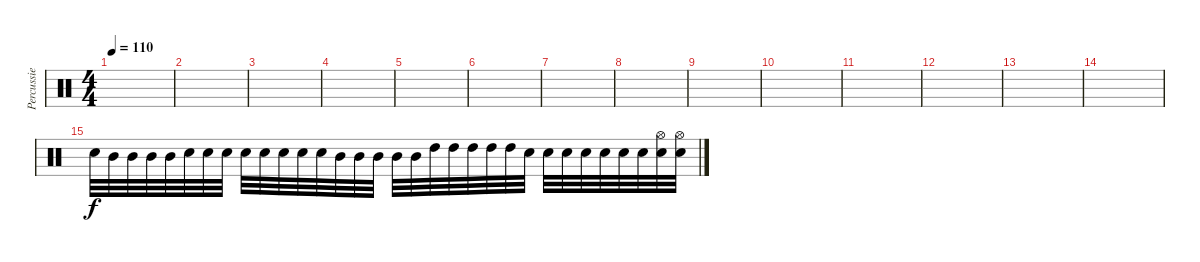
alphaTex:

\track ("Percussie" "Percussie") {instrument percussion}
\staff {score}
\articulation defaults
\ts (4 4)
\tempo 110
\clef neutral
\ks c
|
|
|
|
|
|
|
|
|
|
|
|
|
|
"Electric Snare (hit)".32 "Mid Tom (hit)".32 "Mid Tom (hit)".32 "Mid Tom (hit)".32 "Mid Tom (hit)".32 "Electric Snare (hit)".32 "Electric Snare (hit)".32 "Electric Snare (hit)".32 "Electric Snare (hit)".32 "Electric Snare (hit)".32 "Electric Snare (hit)".32 "Electric Snare (hit)".32 "Electric Snare (hit)".32 "Mid Tom (hit)".32 "Mid Tom (hit)".32 "Mid Tom (hit)".32 "Mid Tom (hit)".32 "Mid Tom (hit)".32 "High Tom (hit)".32 "High Tom (hit)".32 "High Tom (hit)".32 "High Tom (hit)".32 "High Tom (hit)".32 "Electric Snare (hit)".32 "Electric Snare (hit)".32 "Electric Snare (hit)".32 "Electric Snare (hit)".32 "Electric Snare (hit)".32 "Electric Snare (hit)".32 "Electric Snare (hit)".32 ("Hi-Hat (open)" "Electric Snare (hit)").32 ("Hi-Hat (open)" "Electric Snare (hit)").32
